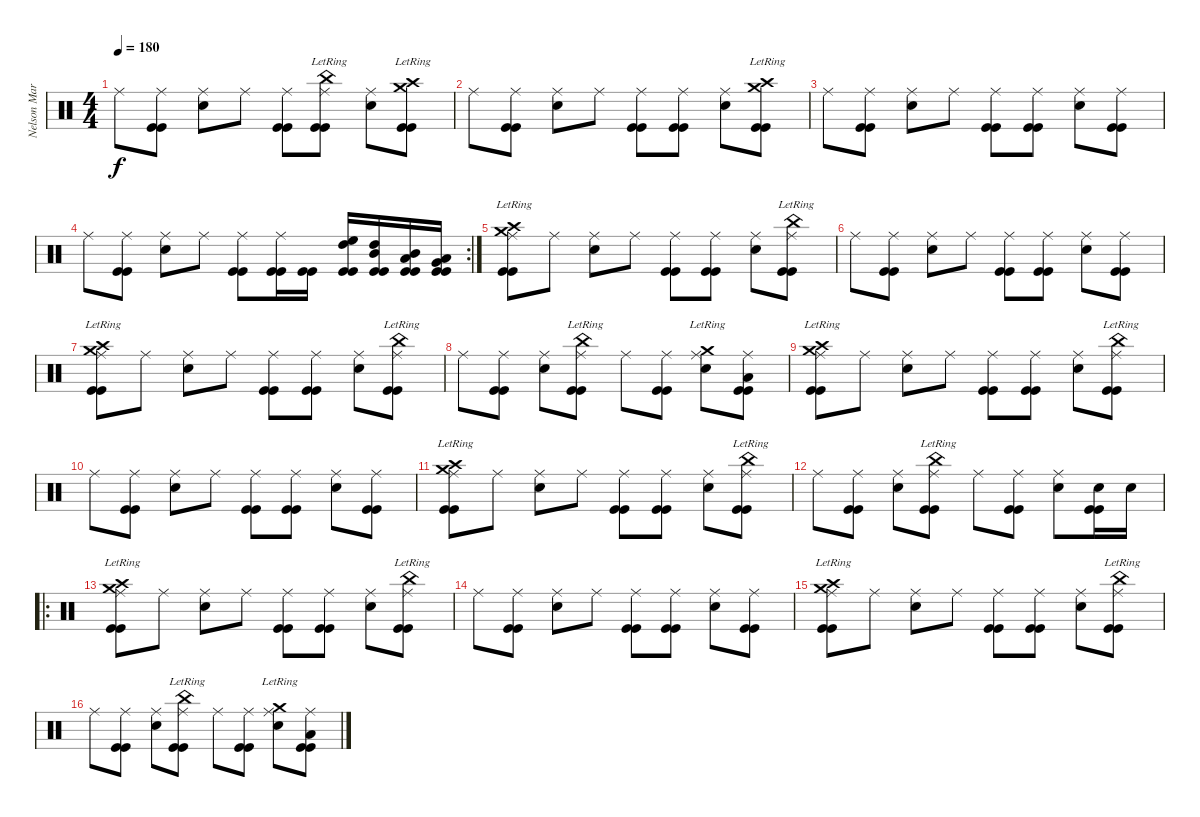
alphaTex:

\track ("Nelson Maria" "Nelson Mar") {instrument percussion}
\staff {score}
\articulation defaults
\ts (4 4)
\tempo 180
\clef neutral
\ks c "Ride (middle)".8{dy f}
("Ride (middle)" "Kick (hit)" "Kick (hit)").8 ("Snare (hit) 2" "Ride (middle)").8 "Ride (middle)".8 ("Ride (middle)" "Kick (hit)" "Kick (hit)").8 ("China (hit)"{lr} "Ride (middle)" "Kick (hit)" "Kick (hit)").8 ("Snare (hit) 2" "Ride (middle)").8 ("Crash high (hit)"{lr} "Crash medium (hit)"{lr} "Kick (hit)" "Kick (hit)").8 |
"Ride (middle)".8 ("Ride (middle)" "Kick (hit)" "Kick (hit)").8 ("Snare (hit) 2" "Ride (middle)").8 "Ride (middle)".8 ("Ride (middle)" "Kick (hit)" "Kick (hit)").8 ("Ride (middle)" "Kick (hit)" "Kick (hit)").8 ("Snare (hit) 2" "Ride (middle)").8 ("Crash high (hit)"{lr} "Crash medium (hit)"{lr} "Kick (hit)" "Kick (hit)").8 |
"Ride (middle)".8 ("Ride (middle)" "Kick (hit)" "Kick (hit)").8 ("Snare (hit) 2" "Ride (middle)").8 "Ride (middle)".8 ("Ride (middle)" "Kick (hit)" "Kick (hit)").8 ("Ride (middle)" "Kick (hit)" "Kick (hit)").8 ("Snare (hit) 2" "Ride (middle)").8 ("Ride (middle)" "Kick (hit)" "Kick (hit)").8 |
\rc 2 "Ride (middle)".8
("Ride (middle)" "Kick (hit)" "Kick (hit)").8 ("Snare (hit) 2" "Ride (middle)").8 "Ride (middle)".8 ("Ride (middle)" "Kick (hit)" "Kick (hit)").8 ("Ride (middle)" "Kick (hit)" "Kick (hit)").16 ("Kick (hit)" "Kick (hit)").16 ("High Floor Tom (hit)" "High Tom (hit)" "Kick (hit)" "Kick (hit)").16 ("High Tom (hit)" "Mid Tom (hit)" "Kick (hit)" "Kick (hit)").16 ("Mid Tom (hit)" "Low Tom (hit)" "Kick (hit)" "Kick (hit)").16 ("Low Tom (hit)" "Very Low Tom (hit)" "Kick (hit)" "Kick (hit)").16 |
("Crash high (hit)"{lr} "Crash medium (hit)"{lr} "Ride (middle)" "Kick (hit)" "Kick (hit)").8 "Ride (middle)".8 ("Snare (hit) 2" "Ride (middle)").8 "Ride (middle)".8 ("Ride (middle)" "Kick (hit)" "Kick (hit)").8 ("Ride (middle)" "Kick (hit)" "Kick (hit)").8 ("Snare (hit) 2" "Ride (middle)").8 ("China (hit)"{lr} "Ride (middle)" "Kick (hit)" "Kick (hit)").8 |
"Ride (middle)".8 ("Ride (middle)" "Kick (hit)" "Kick (hit)").8 ("Snare (hit) 2" "Ride (middle)").8 "Ride (middle)".8 ("Ride (middle)" "Kick (hit)" "Kick (hit)").8 ("Ride (middle)" "Kick (hit)" "Kick (hit)").8 ("Snare (hit) 2" "Ride (middle)").8 ("Ride (middle)" "Kick (hit)" "Kick (hit)").8 |
("Crash high (hit)"{lr} "Crash medium (hit)"{lr} "Ride (middle)" "Kick (hit)" "Kick (hit)").8 "Ride (middle)".8 ("Snare (hit) 2" "Ride (middle)").8 "Ride (middle)".8 ("Ride (middle)" "Kick (hit)" "Kick (hit)").8 ("Ride (middle)" "Kick (hit)" "Kick (hit)").8 ("Snare (hit) 2" "Ride (middle)").8 ("China (hit)"{lr} "Ride (middle)" "Kick (hit)" "Kick (hit)").8 |
"Ride (middle)".8 ("Ride (middle)" "Kick (hit)" "Kick (hit)").8 ("Snare (hit) 2" "Ride (middle)").8 ("China (hit)"{lr} "Ride (middle)" "Kick (hit)" "Kick (hit)").8 "Ride (middle)".8 ("Ride (middle)" "Kick (hit)" "Kick (hit)").8 ("Crash medium (hit)"{lr} "Snare (hit) 2" "Ride (middle)").8 ("Low Tom (hit)" "Ride (middle)" "Kick (hit)" "Kick (hit)").8 |
("Crash high (hit)"{lr} "Crash medium (hit)"{lr} "Ride (middle)" "Kick (hit)" "Kick (hit)").8 "Ride (middle)".8 ("Snare (hit) 2" "Ride (middle)").8 "Ride (middle)".8 ("Ride (middle)" "Kick (hit)" "Kick (hit)").8 ("Ride (middle)" "Kick (hit)" "Kick (hit)").8 ("Snare (hit) 2" "Ride (middle)").8 ("China (hit)"{lr} "Ride (middle)" "Kick (hit)" "Kick (hit)").8 |
"Ride (middle)".8 ("Ride (middle)" "Kick (hit)" "Kick (hit)").8 ("Snare (hit) 2" "Ride (middle)").8 "Ride (middle)".8 ("Ride (middle)" "Kick (hit)" "Kick (hit)").8 ("Ride (middle)" "Kick (hit)" "Kick (hit)").8 ("Snare (hit) 2" "Ride (middle)").8 ("Ride (middle)" "Kick (hit)" "Kick (hit)").8 |
("Crash high (hit)"{lr} "Crash medium (hit)"{lr} "Ride (middle)" "Kick (hit)" "Kick (hit)").8 "Ride (middle)".8 ("Snare (hit) 2" "Ride (middle)").8 "Ride (middle)".8 ("Ride (middle)" "Kick (hit)" "Kick (hit)").8 ("Ride (middle)" "Kick (hit)" "Kick (hit)").8 ("Snare (hit) 2" "Ride (middle)").8 ("China (hit)"{lr} "Ride (middle)" "Kick (hit)" "Kick (hit)").8 |
"Ride (middle)".8 ("Ride (middle)" "Kick (hit)" "Kick (hit)").8 ("Snare (hit) 2" "Ride (middle)").8 ("China (hit)"{lr} "Ride (middle)" "Kick (hit)" "Kick (hit)").8 "Ride (middle)".8 ("Ride (middle)" "Kick (hit)" "Kick (hit)").8 ("Snare (hit) 2" "Ride (middle)").8 ("Snare (hit) 2" "Kick (hit)" "Kick (hit)").16 "Snare (hit) 2".16 |
\ro
("Crash high (hit)"{lr} "Crash medium (hit)"{lr} "Ride (middle)" "Kick (hit)" "Kick (hit)").8 "Ride (middle)".8 ("Snare (hit) 2" "Ride (middle)").8 "Ride (middle)".8 ("Ride (middle)" "Kick (hit)" "Kick (hit)").8 ("Ride (middle)" "Kick (hit)" "Kick (hit)").8 ("Snare (hit) 2" "Ride (middle)").8 ("China (hit)"{lr} "Ride (middle)" "Kick (hit)" "Kick (hit)").8 |
"Ride (middle)".8 ("Ride (middle)" "Kick (hit)" "Kick (hit)").8 ("Snare (hit) 2" "Ride (middle)").8 "Ride (middle)".8 ("Ride (middle)" "Kick (hit)" "Kick (hit)").8 ("Ride (middle)" "Kick (hit)" "Kick (hit)").8 ("Snare (hit) 2" "Ride (middle)").8 ("Ride (middle)" "Kick (hit)" "Kick (hit)").8 |
("Crash high (hit)"{lr} "Crash medium (hit)"{lr} "Ride (middle)" "Kick (hit)" "Kick (hit)").8 "Ride (middle)".8 ("Snare (hit) 2" "Ride (middle)").8 "Ride (middle)".8 ("Ride (middle)" "Kick (hit)" "Kick (hit)").8 ("Ride (middle)" "Kick (hit)" "Kick (hit)").8 ("Snare (hit) 2" "Ride (middle)").8 ("China (hit)"{lr} "Ride (middle)" "Kick (hit)" "Kick (hit)").8 |
"Ride (middle)".8 ("Ride (middle)" "Kick (hit)" "Kick (hit)").8 ("Snare (hit) 2" "Ride (middle)").8 ("China (hit)"{lr} "Ride (middle)" "Kick (hit)" "Kick (hit)").8 "Ride (middle)".8 ("Ride (middle)" "Kick (hit)" "Kick (hit)").8 ("Crash medium (hit)"{lr} "Snare (hit) 2" "Ride (middle)").8 ("Low Tom (hit)" "Ride (middle)" "Kick (hit)" "Kick (hit)").8
